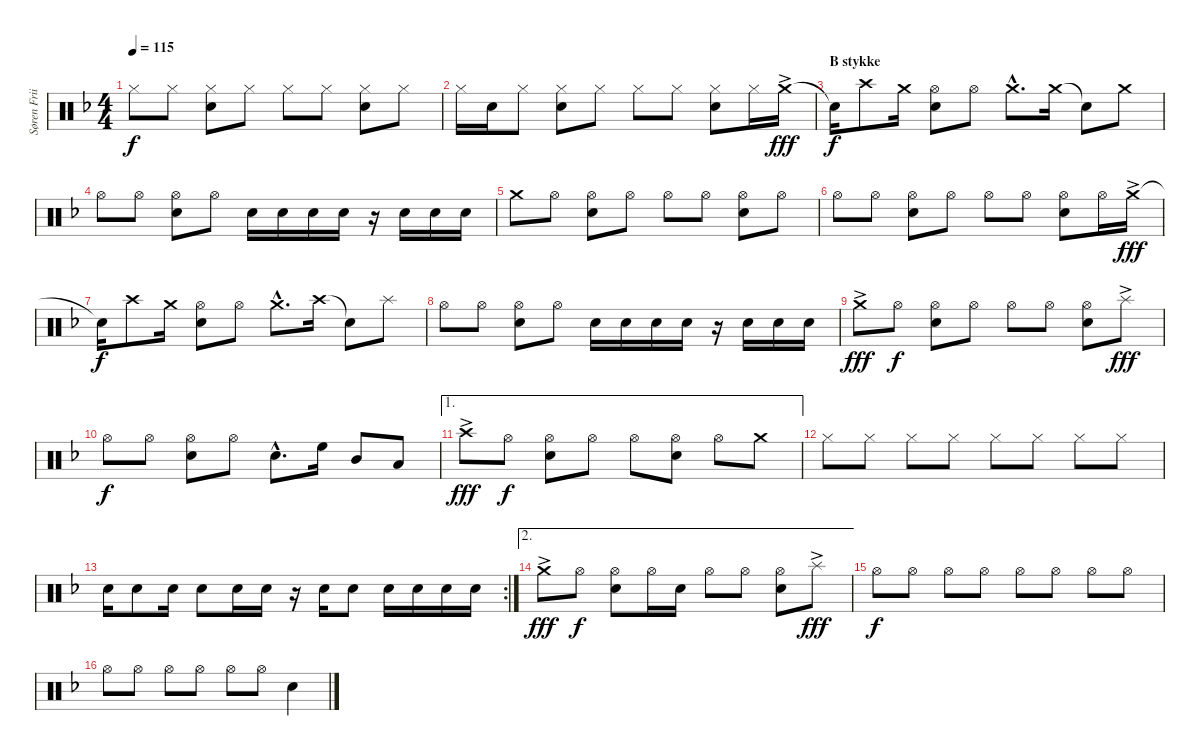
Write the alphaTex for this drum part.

\track ("Søren Friis (Drums)" "Søren Frii") {instrument percussion}
\staff {score}
\articulation defaults
\ts (4 4)
\tempo 115
\clef neutral
\ks f "Hi-Hat (closed)".8{dy f} "Hi-Hat (closed)".8
("Hi-Hat (closed)" "Snare (hit) 2").8 "Hi-Hat (closed)".8 "Hi-Hat (closed)".8 "Hi-Hat (closed)".8 ("Hi-Hat (closed)" "Snare (hit) 2").8 "Hi-Hat (closed)".8 |
"Hi-Hat (closed)".16 "Snare (hit) 2".16 "Hi-Hat (closed)".8 ("Hi-Hat (closed)" "Snare (hit) 2").8 "Hi-Hat (closed)".8 "Hi-Hat (closed)".8 "Hi-Hat (closed)".8 ("Hi-Hat (closed)" "Snare (hit) 2").8 "Hi-Hat (closed)".16 "Crash medium (hit)"{ac}.16{dy fff} |
\section ("" "B stykke")
"Snare (hit)"{t}.16{dy f} "Crash high (hit)".8 "Crash medium (hit)".16 ("Hi-Hat (open)" "Snare (hit) 2").8 "Hi-Hat (open)".8 "Crash medium (hit)"{hac}.8{d} "Crash medium (hit)".16 "Snare (hit)"{t}.8 "Crash medium (hit)".8 |
"Hi-Hat (open)".8 "Hi-Hat (open)".8 ("Hi-Hat (open)" "Snare (hit) 2").8 "Hi-Hat (open)".8 "Snare (hit) 2".16 "Snare (hit) 2".16 "Snare (hit) 2".16 "Snare (hit) 2".16 r.16 "Snare (hit) 2".16 "Snare (hit) 2".16 "Snare (hit) 2".16 |
"Crash medium (hit)".8 "Hi-Hat (open)".8 ("Hi-Hat (open)" "Snare (hit) 2").8 "Hi-Hat (open)".8 "Hi-Hat (open)".8 "Hi-Hat (open)".8 ("Hi-Hat (open)" "Snare (hit) 2").8 "Hi-Hat (open)".8 |
"Hi-Hat (open)".8 "Hi-Hat (open)".8 ("Hi-Hat (open)" "Snare (hit) 2").8 "Hi-Hat (open)".8 "Hi-Hat (open)".8 "Hi-Hat (open)".8 ("Hi-Hat (open)" "Snare (hit) 2").8 "Hi-Hat (open)".16 "Crash medium (hit)"{ac}.16{dy fff} |
"Snare (hit)"{t}.16{dy f} "Crash high (hit)".8 "Crash medium (hit)".16 ("Hi-Hat (open)" "Snare (hit) 2").8 "Hi-Hat (open)".8 "Crash medium (hit)"{hac}.8{d} "Crash high (hit)".16 "Snare (hit)"{t}.8 "Splash (hit)".8 |
"Hi-Hat (open)".8 "Hi-Hat (open)".8 ("Hi-Hat (open)" "Snare (hit) 2").8 "Hi-Hat (open)".8 "Snare (hit) 2".16 "Snare (hit) 2".16 "Snare (hit) 2".16 "Snare (hit) 2".16 r.16 "Snare (hit) 2".16 "Snare (hit) 2".16 "Snare (hit) 2".16 |
"Crash medium (hit)"{ac}.8{dy fff} "Hi-Hat (open)".8{dy f} ("Hi-Hat (open)" "Snare (hit) 2").8 "Hi-Hat (open)".8 "Hi-Hat (open)".8 "Hi-Hat (open)".8 ("Hi-Hat (open)" "Snare (hit) 2").8 "Splash (hit)"{ac}.8{dy fff} |
"Hi-Hat (open)".8{dy f} "Hi-Hat (open)".8 ("Hi-Hat (open)" "Snare (hit) 2").8 "Hi-Hat (open)".8 "Snare (hit) 2"{hac}.8{d} "High Floor Tom (hit)".16 "Mid Tom (hit)".8 "Low Tom (hit)".8 |
\ae 1 "Crash high (hit)"{ac}.8{dy fff} "Hi-Hat (open)".8{dy f}
("Hi-Hat (open)" "Snare (hit) 2").8 "Hi-Hat (open)".8 "Hi-Hat (open)".8 ("Hi-Hat (open)" "Snare (hit) 2").8 "Hi-Hat (open)".8 "Crash medium (hit)".8 |
"Hi-Hat (closed)".8 "Hi-Hat (closed)".8 "Hi-Hat (closed)".8 "Hi-Hat (closed)".8 "Hi-Hat (closed)".8 "Hi-Hat (closed)".8 "Hi-Hat (closed)".8 "Hi-Hat (closed)".8 |
\rc 2 "Snare (hit) 2".16 "Snare (hit) 2".8 "Snare (hit) 2".16 "Snare (hit) 2".8 "Snare (hit) 2".16 "Snare (hit) 2".16
r.16 "Snare (hit) 2".16 "Snare (hit) 2".8 "Snare (hit) 2".16 "Snare (hit) 2".16 "Snare (hit) 2".16 "Snare (hit) 2".16 |
\ae 2 "Crash medium (hit)"{ac}.8{dy fff} "Hi-Hat (open)".8{dy f}
("Hi-Hat (open)" "Snare (hit) 2").8 "Hi-Hat (open)".16 "Snare (hit) 2".16 "Hi-Hat (open)".8 "Hi-Hat (open)".8 ("Hi-Hat (open)" "Snare (hit) 2").8 "Splash (hit)"{ac}.8{dy fff} |
"Hi-Hat (open)".8{dy f} "Hi-Hat (open)".8 "Hi-Hat (open)".8 "Hi-Hat (open)".8 "Hi-Hat (open)".8 "Hi-Hat (open)".8 "Hi-Hat (open)".8 "Hi-Hat (open)".8 |
"Hi-Hat (open)".8 "Hi-Hat (open)".8 "Hi-Hat (open)".8 "Hi-Hat (open)".8 "Hi-Hat (open)".8 "Hi-Hat (open)".8 "Snare (hit) 2".4
